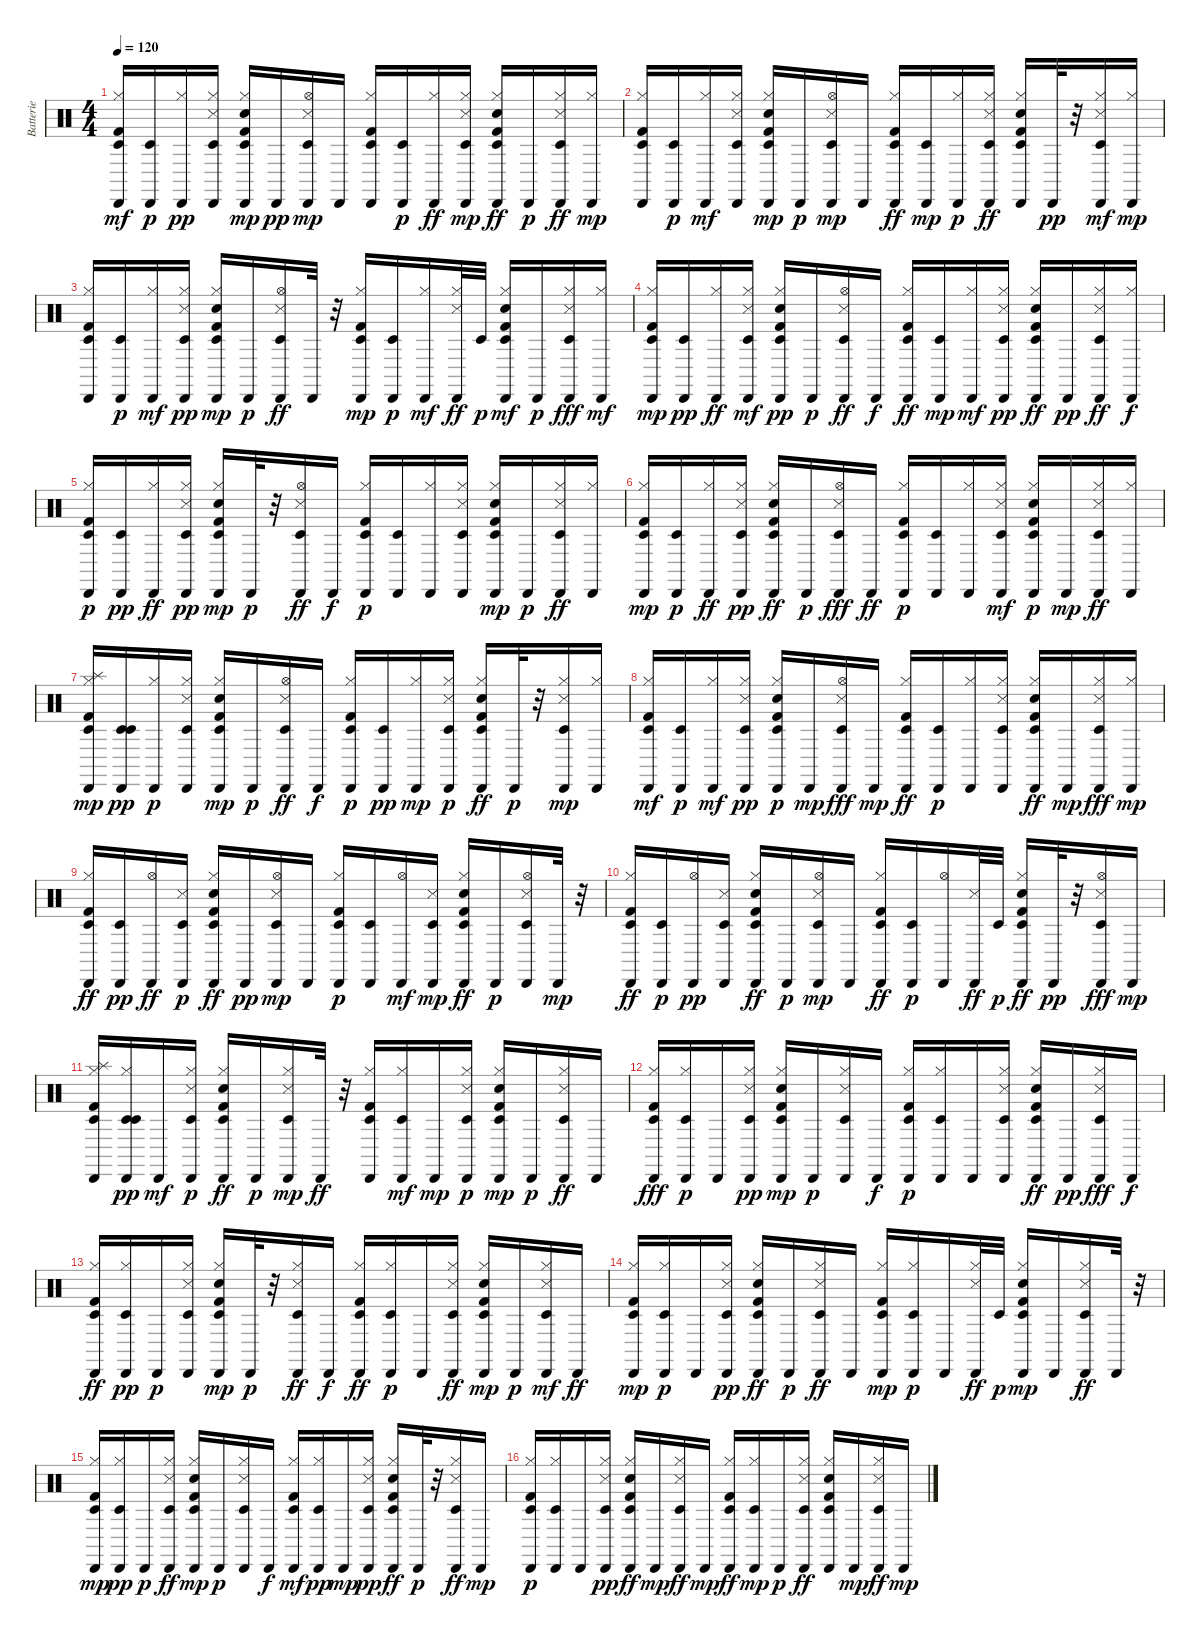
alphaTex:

\track ("Batterie" "Batterie") {instrument percussion}
\staff {score}
\articulation defaults
\ts (4 4)
\tempo 120
\clef neutral
\ks c
("Hi-Hat (closed)" "Kick (hit) 2" "Cabasa (hit)" "Timbale low (hit)").16{dy mf} ("Cabasa (hit)" "Timbale low (hit)").16{dy p} ("Cabasa (hit)" "Hi-Hat (closed)").16{dy pp} ("Snare (side stick) 3" "Cabasa (hit)" "Hi-Hat (closed)" "Timbale low (hit)").16 ("Hand Clap (hit)" "Kick (hit) 2" "Cabasa (hit)" "Hi-Hat (closed)" "Timbale low (hit)").16{dy mp} "Cabasa (hit)".16{dy pp} ("Hi-Hat (open)" "Snare (side stick) 3" "Cabasa (hit)" "Timbale low (hit)").16{dy mp} "Cabasa (hit)".16 ("Hi-Hat (closed)" "Kick (hit) 2" "Timbale low (hit)" "Cabasa (hit)").16 ("Cabasa (hit)" "Timbale low (hit)").16{dy p} ("Cabasa (hit)" "Hi-Hat (closed)").16{dy ff} ("Snare (side stick) 3" "Cabasa (hit)" "Timbale low (hit)" "Hi-Hat (closed)").16{dy mp} ("Timbale low (hit)" "Hand Clap (hit)" "Hi-Hat (closed)" "Cabasa (hit)" "Kick (hit) 2").16{dy ff} "Cabasa (hit)".16{dy p} ("Timbale low (hit)" "Cabasa (hit)" "Snare (side stick) 3" "Hi-Hat (closed)").16{dy ff} ("Cabasa (hit)" "Hi-Hat (closed)").16{dy mp} |
("Timbale low (hit)" "Cabasa (hit)" "Kick (hit) 2" "Hi-Hat (closed)").16 ("Timbale low (hit)" "Cabasa (hit)").16{dy p} ("Cabasa (hit)" "Hi-Hat (closed)").16{dy mf} ("Cabasa (hit)" "Snare (side stick) 3" "Timbale low (hit)" "Hi-Hat (closed)").16 ("Timbale low (hit)" "Cabasa (hit)" "Kick (hit) 2" "Hand Clap (hit)" "Hi-Hat (closed)").16{dy mp} "Cabasa (hit)".16{dy p} ("Hi-Hat (open)" "Cabasa (hit)" "Timbale low (hit)" "Snare (side stick) 3").16{dy mp} "Cabasa (hit)".16 ("Timbale low (hit)" "Kick (hit) 2" "Hi-Hat (closed)" "Cabasa (hit)").16{dy ff} ("Timbale low (hit)" "Cabasa (hit)").16{dy mp} ("Hi-Hat (closed)" "Cabasa (hit)").16{dy p} ("Timbale low (hit)" "Cabasa (hit)" "Hi-Hat (closed)" "Snare (side stick) 3").16{dy ff} ("Timbale low (hit)" "Hi-Hat (closed)" "Cabasa (hit)" "Kick (hit) 2" "Hand Clap (hit)").16 "Cabasa (hit)".32{dy pp} r.32 ("Cabasa (hit)" "Timbale low (hit)" "Snare (side stick) 3" "Hi-Hat (closed)").16{dy mf} ("Cabasa (hit)" "Hi-Hat (closed)").16{dy mp} |
("Kick (hit) 2" "Cabasa (hit)" "Hi-Hat (closed)" "Timbale low (hit)").16 ("Cabasa (hit)" "Timbale low (hit)").16{dy p} ("Cabasa (hit)" "Hi-Hat (closed)").16{dy mf} ("Cabasa (hit)" "Snare (side stick) 3" "Hi-Hat (closed)" "Timbale low (hit)").16{dy pp} ("Kick (hit) 2" "Cabasa (hit)" "Timbale low (hit)" "Hi-Hat (closed)" "Hand Clap (hit)").16{dy mp} "Cabasa (hit)".16{dy p} ("Cabasa (hit)" "Snare (side stick) 3" "Timbale low (hit)" "Hi-Hat (open)").16{dy ff} "Cabasa (hit)".32 r.32 ("Cabasa (hit)" "Kick (hit) 2" "Timbale low (hit)" "Hi-Hat (closed)").16{dy mp} ("Cabasa (hit)" "Timbale low (hit)").16{dy p} ("Cabasa (hit)" "Hi-Hat (closed)").16{dy mf} ("Cabasa (hit)" "Hi-Hat (closed)" "Snare (side stick) 3").32{dy ff} "Timbale low (hit)".32{dy p} ("Cabasa (hit)" "Hi-Hat (closed)" "Kick (hit) 2" "Hand Clap (hit)" "Timbale low (hit)").16{dy mf} "Cabasa (hit)".16{dy p} ("Cabasa (hit)" "Hi-Hat (closed)" "Snare (side stick) 3" "Timbale low (hit)").16{dy fff} ("Cabasa (hit)" "Hi-Hat (closed)").16{dy mf} |
("Cabasa (hit)" "Kick (hit) 2" "Hi-Hat (closed)" "Timbale low (hit)").16{dy mp} ("Cabasa (hit)" "Timbale low (hit)").16{dy pp} ("Cabasa (hit)" "Hi-Hat (closed)").16{dy ff} ("Cabasa (hit)" "Timbale low (hit)" "Snare (side stick) 3" "Hi-Hat (closed)").16{dy mf} ("Timbale low (hit)" "Kick (hit) 2" "Cabasa (hit)" "Hand Clap (hit)" "Hi-Hat (closed)").16{dy pp} "Cabasa (hit)".16{dy p} ("Hi-Hat (open)" "Cabasa (hit)" "Snare (side stick) 3" "Timbale low (hit)").16{dy ff} "Cabasa (hit)".16{dy f} ("Timbale low (hit)" "Cabasa (hit)" "Kick (hit) 2" "Hi-Hat (closed)").16{dy ff} ("Timbale low (hit)" "Cabasa (hit)").16{dy mp} ("Cabasa (hit)" "Hi-Hat (closed)").16{dy mf} ("Cabasa (hit)" "Hi-Hat (closed)" "Timbale low (hit)" "Snare (side stick) 3").16{dy pp} ("Timbale low (hit)" "Hi-Hat (closed)" "Cabasa (hit)" "Kick (hit) 2" "Hand Clap (hit)").16{dy ff} "Cabasa (hit)".16{dy pp} ("Cabasa (hit)" "Hi-Hat (closed)" "Timbale low (hit)" "Snare (side stick) 3").16{dy ff} ("Cabasa (hit)" "Hi-Hat (closed)").16{dy f} |
("Cabasa (hit)" "Kick (hit) 2" "Hi-Hat (closed)" "Timbale low (hit)").16{dy p} ("Timbale low (hit)" "Cabasa (hit)").16{dy pp} ("Cabasa (hit)" "Hi-Hat (closed)").16{dy ff} ("Cabasa (hit)" "Snare (side stick) 3" "Hi-Hat (closed)" "Timbale low (hit)").16{dy pp} ("Timbale low (hit)" "Kick (hit) 2" "Hi-Hat (closed)" "Cabasa (hit)" "Hand Clap (hit)").16{dy mp} "Cabasa (hit)".32{dy p} r.32 ("Hi-Hat (open)" "Timbale low (hit)" "Cabasa (hit)" "Snare (side stick) 3").16{dy ff} "Cabasa (hit)".16{dy f} ("Timbale low (hit)" "Kick (hit) 2" "Cabasa (hit)" "Hi-Hat (closed)").16{dy p} ("Timbale low (hit)" "Cabasa (hit)").16 ("Hi-Hat (closed)" "Cabasa (hit)").16 ("Cabasa (hit)" "Hi-Hat (closed)" "Snare (side stick) 3" "Timbale low (hit)").16 ("Timbale low (hit)" "Hi-Hat (closed)" "Kick (hit) 2" "Cabasa (hit)" "Hand Clap (hit)").16{dy mp} "Cabasa (hit)".16{dy p} ("Cabasa (hit)" "Snare (side stick) 3" "Hi-Hat (closed)" "Timbale low (hit)").16{dy ff} ("Cabasa (hit)" "Hi-Hat (closed)").16 |
("Kick (hit) 2" "Hi-Hat (closed)" "Cabasa (hit)" "Timbale low (hit)").16{dy mp} ("Timbale low (hit)" "Cabasa (hit)").16{dy p} ("Cabasa (hit)" "Hi-Hat (closed)").16{dy ff} ("Cabasa (hit)" "Snare (side stick) 3" "Hi-Hat (closed)" "Timbale low (hit)").16{dy pp} ("Timbale low (hit)" "Hi-Hat (closed)" "Cabasa (hit)" "Kick (hit) 2" "Hand Clap (hit)").16{dy ff} "Cabasa (hit)".16{dy p} ("Hi-Hat (open)" "Cabasa (hit)" "Timbale low (hit)" "Snare (side stick) 3").16{dy fff} "Cabasa (hit)".16{dy ff} ("Hi-Hat (closed)" "Timbale low (hit)" "Kick (hit) 2" "Cabasa (hit)").16{dy p} ("Timbale low (hit)" "Cabasa (hit)").16 ("Hi-Hat (closed)" "Cabasa (hit)").16 ("Timbale low (hit)" "Hi-Hat (closed)" "Cabasa (hit)" "Snare (side stick) 3").16{dy mf} ("Hi-Hat (closed)" "Timbale low (hit)" "Kick (hit) 2" "Cabasa (hit)" "Hand Clap (hit)").16{dy p} "Cabasa (hit)".16{dy mp} ("Hi-Hat (closed)" "Cabasa (hit)" "Timbale low (hit)" "Snare (side stick) 3").16{dy ff} ("Hi-Hat (closed)" "Cabasa (hit)").16 |
("Kick (hit) 2" "Hi-Hat (closed)" "Splash (hit)" "Cabasa (hit)" "Timbale low (hit)").16{dy mp} ("Cabasa (hit)" "Timbale low (hit)" "Timbale low (hit)").16{dy pp} ("Hi-Hat (closed)" "Cabasa (hit)").16{dy p} ("Hi-Hat (closed)" "Cabasa (hit)" "Snare (side stick) 3" "Timbale low (hit)").16 ("Timbale low (hit)" "Hi-Hat (closed)" "Kick (hit) 2" "Cabasa (hit)" "Hand Clap (hit)").16{dy mp} "Cabasa (hit)".16{dy p} ("Hi-Hat (open)" "Timbale low (hit)" "Cabasa (hit)" "Snare (side stick) 3").16{dy ff} "Cabasa (hit)".16{dy f} ("Timbale low (hit)" "Kick (hit) 2" "Hi-Hat (closed)" "Cabasa (hit)").16{dy p} ("Timbale low (hit)" "Cabasa (hit)").16{dy pp} ("Hi-Hat (closed)" "Cabasa (hit)").16{dy mp} ("Hi-Hat (closed)" "Snare (side stick) 3" "Cabasa (hit)" "Timbale low (hit)").16{dy p} ("Hi-Hat (closed)" "Timbale low (hit)" "Kick (hit) 2" "Hand Clap (hit)" "Cabasa (hit)").16{dy ff} "Cabasa (hit)".32{dy p} r.32 ("Cabasa (hit)" "Hi-Hat (closed)" "Snare (side stick) 3" "Timbale low (hit)").16{dy mp} ("Cabasa (hit)" "Hi-Hat (closed)").16 |
("Kick (hit) 2" "Hi-Hat (closed)" "Cabasa (hit)" "Timbale low (hit)").16{dy mf} ("Cabasa (hit)" "Timbale low (hit)").16{dy p} ("Cabasa (hit)" "Hi-Hat (closed)").16{dy mf} ("Snare (side stick) 3" "Cabasa (hit)" "Hi-Hat (closed)" "Timbale low (hit)").16{dy pp} ("Kick (hit) 2" "Cabasa (hit)" "Timbale low (hit)" "Hand Clap (hit)" "Hi-Hat (closed)").16{dy p} "Cabasa (hit)".16{dy mp} ("Cabasa (hit)" "Hi-Hat (open)" "Snare (side stick) 3" "Timbale low (hit)").16{dy fff} "Cabasa (hit)".16{dy mp} ("Hi-Hat (closed)" "Kick (hit) 2" "Timbale low (hit)" "Cabasa (hit)").16{dy ff} ("Cabasa (hit)" "Timbale low (hit)").16{dy p} ("Hi-Hat (closed)" "Cabasa (hit)").16 ("Hi-Hat (closed)" "Cabasa (hit)" "Snare (side stick) 3" "Timbale low (hit)").16 ("Timbale low (hit)" "Hi-Hat (closed)" "Kick (hit) 2" "Cabasa (hit)" "Hand Clap (hit)").16{dy ff} "Cabasa (hit)".16{dy mp} ("Timbale low (hit)" "Hi-Hat (closed)" "Cabasa (hit)" "Snare (side stick) 3").16{dy fff} ("Hi-Hat (closed)" "Cabasa (hit)").16{dy mp} |
("Timbale low (hit)" "Hi-Hat (closed)" "Kick (hit) 2" "Cabasa (hit)").16{dy ff} ("Timbale low (hit)" "Cabasa (hit)").16{dy pp} ("Cabasa (hit)" "Hi-Hat (open)").16{dy ff} ("Snare (side stick) 3" "Cabasa (hit)" "Timbale low (hit)").16{dy p} ("Hi-Hat (closed)" "Hand Clap (hit)" "Timbale low (hit)" "Kick (hit) 2" "Cabasa (hit)").16{dy ff} "Cabasa (hit)".16{dy pp} ("Timbale low (hit)" "Snare (side stick) 3" "Cabasa (hit)" "Hi-Hat (open)").16{dy mp} "Cabasa (hit)".16 ("Hi-Hat (closed)" "Timbale low (hit)" "Kick (hit) 2" "Cabasa (hit)").16{dy p} ("Timbale low (hit)" "Cabasa (hit)").16 ("Cabasa (hit)" "Hi-Hat (open)").16{dy mf} ("Snare (side stick) 3" "Timbale low (hit)" "Cabasa (hit)").16{dy mp} ("Timbale low (hit)" "Hand Clap (hit)" "Cabasa (hit)" "Kick (hit) 2" "Hi-Hat (closed)").16{dy ff} "Cabasa (hit)".16{dy p} ("Cabasa (hit)" "Snare (side stick) 3" "Timbale low (hit)" "Hi-Hat (open)").16 "Cabasa (hit)".32{dy mp} r.32 |
("Cabasa (hit)" "Kick (hit) 2" "Timbale low (hit)" "Hi-Hat (closed)").16{dy ff} ("Timbale low (hit)" "Cabasa (hit)").16{dy p} ("Cabasa (hit)" "Hi-Hat (open)").16{dy pp} ("Cabasa (hit)" "Snare (side stick) 3" "Timbale low (hit)").16 ("Cabasa (hit)" "Kick (hit) 2" "Timbale low (hit)" "Hand Clap (hit)" "Hi-Hat (closed)").16{dy ff} "Cabasa (hit)".16{dy p} ("Cabasa (hit)" "Hi-Hat (open)" "Timbale low (hit)" "Snare (side stick) 3").16{dy mp} "Cabasa (hit)".16 ("Kick (hit) 2" "Cabasa (hit)" "Timbale low (hit)" "Hi-Hat (closed)").16{dy ff} ("Cabasa (hit)" "Timbale low (hit)").16{dy p} ("Hi-Hat (open)" "Cabasa (hit)").16 ("Cabasa (hit)" "Snare (side stick) 3").32{dy ff} "Timbale low (hit)".32{dy p} ("Cabasa (hit)" "Kick (hit) 2" "Timbale low (hit)" "Hi-Hat (closed)" "Hand Clap (hit)").16{dy ff} "Cabasa (hit)".32{dy pp} r.32 ("Hi-Hat (open)" "Cabasa (hit)" "Snare (side stick) 3" "Timbale low (hit)").16{dy fff} "Cabasa (hit)".16{dy mp} |
("Hi-Hat (closed)" "Splash (hit)" "Kick (hit) 2" "Cabasa (hit)" "Timbale low (hit)").16 ("Hi-Hat (closed)" "Cabasa (hit)" "Timbale low (hit)" "Timbale low (hit)").16{dy pp} "Cabasa (hit)".16{dy mf} ("Cabasa (hit)" "Snare (side stick) 3" "Hi-Hat (closed)" "Timbale low (hit)").16{dy p} ("Timbale low (hit)" "Hand Clap (hit)" "Hi-Hat (closed)" "Cabasa (hit)" "Kick (hit) 2").16{dy ff} "Cabasa (hit)".16{dy p} ("Timbale low (hit)" "Cabasa (hit)" "Snare (side stick) 3" "Hi-Hat (closed)").16{dy mp} "Cabasa (hit)".32{dy ff} r.32 ("Timbale low (hit)" "Cabasa (hit)" "Kick (hit) 2" "Hi-Hat (closed)").16 ("Timbale low (hit)" "Cabasa (hit)" "Hi-Hat (closed)").16{dy mf} "Cabasa (hit)".16{dy mp} ("Snare (side stick) 3" "Cabasa (hit)" "Timbale low (hit)" "Hi-Hat (closed)").16{dy p} ("Timbale low (hit)" "Cabasa (hit)" "Hand Clap (hit)" "Kick (hit) 2" "Hi-Hat (closed)").16{dy mp} "Cabasa (hit)".16{dy p} ("Cabasa (hit)" "Snare (side stick) 3" "Timbale low (hit)" "Hi-Hat (closed)").16{dy ff} "Cabasa (hit)".16 |
("Cabasa (hit)" "Kick (hit) 2" "Timbale low (hit)" "Hi-Hat (closed)").16{dy fff} ("Hi-Hat (closed)" "Cabasa (hit)" "Timbale low (hit)").16{dy p} "Cabasa (hit)".16 ("Cabasa (hit)" "Snare (side stick) 3" "Hi-Hat (closed)" "Timbale low (hit)").16{dy pp} ("Kick (hit) 2" "Hi-Hat (closed)" "Cabasa (hit)" "Hand Clap (hit)" "Timbale low (hit)").16{dy mp} "Cabasa (hit)".16{dy p} ("Hi-Hat (closed)" "Cabasa (hit)" "Snare (side stick) 3" "Timbale low (hit)").16 "Cabasa (hit)".16{dy f} ("Kick (hit) 2" "Timbale low (hit)" "Hi-Hat (closed)" "Cabasa (hit)").16{dy p} ("Hi-Hat (closed)" "Cabasa (hit)" "Timbale low (hit)").16 "Cabasa (hit)".16 ("Cabasa (hit)" "Hi-Hat (closed)" "Snare (side stick) 3" "Timbale low (hit)").16 ("Timbale low (hit)" "Hi-Hat (closed)" "Cabasa (hit)" "Kick (hit) 2" "Hand Clap (hit)").16{dy ff} "Cabasa (hit)".16{dy pp} ("Timbale low (hit)" "Cabasa (hit)" "Hi-Hat (closed)" "Snare (side stick) 3").16{dy fff} "Cabasa (hit)".16{dy f} |
("Kick (hit) 2" "Timbale low (hit)" "Cabasa (hit)" "Hi-Hat (closed)").16{dy ff} ("Hi-Hat (closed)" "Timbale low (hit)" "Cabasa (hit)").16{dy pp} "Cabasa (hit)".16{dy p} ("Cabasa (hit)" "Snare (side stick) 3" "Timbale low (hit)" "Hi-Hat (closed)").16 ("Timbale low (hit)" "Kick (hit) 2" "Hi-Hat (closed)" "Cabasa (hit)" "Hand Clap (hit)").16{dy mp} "Cabasa (hit)".32{dy p} r.32 ("Cabasa (hit)" "Timbale low (hit)" "Snare (side stick) 3" "Hi-Hat (closed)").16{dy ff} "Cabasa (hit)".16{dy f} ("Timbale low (hit)" "Kick (hit) 2" "Cabasa (hit)" "Hi-Hat (closed)").16{dy ff} ("Timbale low (hit)" "Hi-Hat (closed)" "Cabasa (hit)").16{dy p} "Cabasa (hit)".16 ("Timbale low (hit)" "Cabasa (hit)" "Snare (side stick) 3" "Hi-Hat (closed)").16{dy ff} ("Timbale low (hit)" "Hi-Hat (closed)" "Kick (hit) 2" "Hand Clap (hit)" "Cabasa (hit)").16{dy mp} "Cabasa (hit)".16{dy p} ("Cabasa (hit)" "Timbale low (hit)" "Snare (side stick) 3" "Hi-Hat (closed)").16{dy mf} "Cabasa (hit)".16{dy ff} |
("Cabasa (hit)" "Kick (hit) 2" "Timbale low (hit)" "Hi-Hat (closed)").16{dy mp} ("Hi-Hat (closed)" "Timbale low (hit)" "Cabasa (hit)").16{dy p} "Cabasa (hit)".16 ("Cabasa (hit)" "Snare (side stick) 3" "Hi-Hat (closed)" "Timbale low (hit)").16{dy pp} ("Hi-Hat (closed)" "Timbale low (hit)" "Cabasa (hit)" "Kick (hit) 2" "Hand Clap (hit)").16{dy ff} "Cabasa (hit)".16{dy p} ("Cabasa (hit)" "Timbale low (hit)" "Snare (side stick) 3" "Hi-Hat (closed)").16{dy ff} "Cabasa (hit)".16 ("Kick (hit) 2" "Cabasa (hit)" "Timbale low (hit)" "Hi-Hat (closed)").16{dy mp} ("Cabasa (hit)" "Hi-Hat (closed)" "Timbale low (hit)").16{dy p} "Cabasa (hit)".16 ("Cabasa (hit)" "Snare (side stick) 3" "Hi-Hat (closed)").32{dy ff} "Timbale low (hit)".32{dy p} ("Cabasa (hit)" "Kick (hit) 2" "Timbale low (hit)" "Hi-Hat (closed)" "Hand Clap (hit)").16{dy mp} "Cabasa (hit)".16 ("Cabasa (hit)" "Hi-Hat (closed)" "Snare (side stick) 3" "Timbale low (hit)").16{dy ff} "Cabasa (hit)".32 r.32 |
("Kick (hit) 2" "Cabasa (hit)" "Hi-Hat (closed)" "Timbale low (hit)").16{dy mp} ("Hi-Hat (closed)" "Cabasa (hit)" "Timbale low (hit)").16{dy pp} "Cabasa (hit)".16{dy p} ("Cabasa (hit)" "Snare (side stick) 3" "Timbale low (hit)" "Hi-Hat (closed)").16{dy ff} ("Kick (hit) 2" "Timbale low (hit)" "Hi-Hat (closed)" "Cabasa (hit)" "Hand Clap (hit)").16{dy mp} "Cabasa (hit)".16{dy p} ("Snare (side stick) 3" "Cabasa (hit)" "Hi-Hat (closed)" "Timbale low (hit)").16 "Cabasa (hit)".16{dy f} ("Kick (hit) 2" "Timbale low (hit)" "Cabasa (hit)" "Hi-Hat (closed)").16{dy mf} ("Hi-Hat (closed)" "Timbale low (hit)" "Cabasa (hit)").16{dy pp} "Cabasa (hit)".16{dy mp} ("Cabasa (hit)" "Snare (side stick) 3" "Hi-Hat (closed)" "Timbale low (hit)").16{dy pp} ("Timbale low (hit)" "Hi-Hat (closed)" "Kick (hit) 2" "Cabasa (hit)" "Hand Clap (hit)").16{dy ff} "Cabasa (hit)".32{dy p} r.32 ("Hi-Hat (closed)" "Cabasa (hit)" "Timbale low (hit)" "Snare (side stick) 3").16{dy ff} "Cabasa (hit)".16{dy mp} |
("Kick (hit) 2" "Cabasa (hit)" "Hi-Hat (closed)" "Timbale low (hit)").16{dy p} ("Hi-Hat (closed)" "Timbale low (hit)" "Cabasa (hit)").16 "Cabasa (hit)".16 ("Cabasa (hit)" "Snare (side stick) 3" "Hi-Hat (closed)" "Timbale low (hit)").16{dy pp} ("Timbale low (hit)" "Hi-Hat (closed)" "Cabasa (hit)" "Kick (hit) 2" "Hand Clap (hit)").16{dy ff} "Cabasa (hit)".16{dy mp} ("Timbale low (hit)" "Cabasa (hit)" "Snare (side stick) 3" "Hi-Hat (closed)").16{dy ff} "Cabasa (hit)".16{dy mp} ("Timbale low (hit)" "Cabasa (hit)" "Kick (hit) 2" "Hi-Hat (closed)").16{dy ff} ("Timbale low (hit)" "Hi-Hat (closed)" "Cabasa (hit)").16{dy mp} "Cabasa (hit)".16{dy p} ("Cabasa (hit)" "Snare (side stick) 3" "Timbale low (hit)" "Hi-Hat (closed)").16{dy ff} ("Timbale low (hit)" "Hi-Hat (closed)" "Kick (hit) 2" "Cabasa (hit)" "Hand Clap (hit)").16 "Cabasa (hit)".16{dy mp} ("Cabasa (hit)" "Timbale low (hit)" "Hi-Hat (closed)" "Snare (side stick) 3").16{dy ff} "Cabasa (hit)".16{dy mp}
